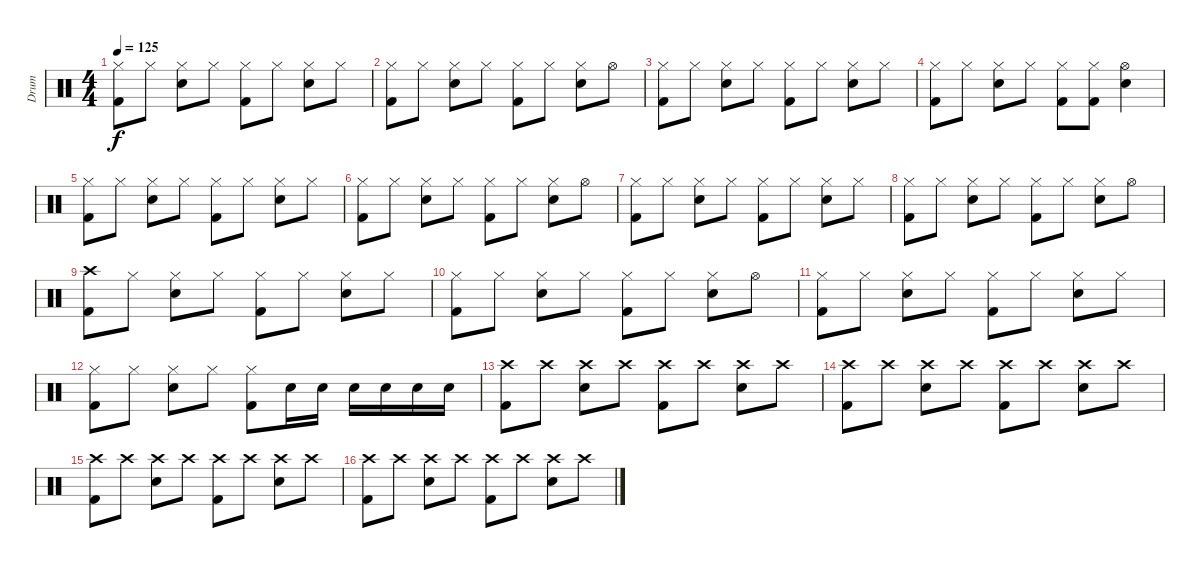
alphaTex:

\track ("Drum" "Drum") {instrument percussion}
\staff {score}
\articulation defaults
\ts (4 4)
\tempo 125
\clef neutral
\ks c
("Kick (hit) 2" "Hi-Hat (closed)").8{dy f} "Hi-Hat (closed)".8 ("Electric Snare (hit)" "Hi-Hat (closed)").8 "Hi-Hat (closed)".8 ("Kick (hit) 2" "Hi-Hat (closed)").8 "Hi-Hat (closed)".8 ("Electric Snare (hit)" "Hi-Hat (closed)").8 "Hi-Hat (closed)".8 |
("Kick (hit) 2" "Hi-Hat (closed)").8 "Hi-Hat (closed)".8 ("Electric Snare (hit)" "Hi-Hat (closed)").8 "Hi-Hat (closed)".8 ("Kick (hit) 2" "Hi-Hat (closed)").8 "Hi-Hat (closed)".8 ("Electric Snare (hit)" "Hi-Hat (closed)").8 "Hi-Hat (open)".8 |
("Kick (hit) 2" "Hi-Hat (closed)").8 "Hi-Hat (closed)".8 ("Electric Snare (hit)" "Hi-Hat (closed)").8 "Hi-Hat (closed)".8 ("Kick (hit) 2" "Hi-Hat (closed)").8 "Hi-Hat (closed)".8 ("Electric Snare (hit)" "Hi-Hat (closed)").8 "Hi-Hat (closed)".8 |
("Kick (hit) 2" "Hi-Hat (closed)").8 "Hi-Hat (closed)".8 ("Electric Snare (hit)" "Hi-Hat (closed)").8 "Hi-Hat (closed)".8 ("Kick (hit) 2" "Hi-Hat (closed)").8 ("Kick (hit) 2" "Hi-Hat (closed)").8 ("Electric Snare (hit)" "Hi-Hat (open)").4 |
("Kick (hit) 2" "Hi-Hat (closed)").8 "Hi-Hat (closed)".8 ("Electric Snare (hit)" "Hi-Hat (closed)").8 "Hi-Hat (closed)".8 ("Kick (hit) 2" "Hi-Hat (closed)").8 "Hi-Hat (closed)".8 ("Electric Snare (hit)" "Hi-Hat (closed)").8 "Hi-Hat (closed)".8 |
("Kick (hit) 2" "Hi-Hat (closed)").8 "Hi-Hat (closed)".8 ("Electric Snare (hit)" "Hi-Hat (closed)").8 "Hi-Hat (closed)".8 ("Kick (hit) 2" "Hi-Hat (closed)").8 "Hi-Hat (closed)".8 ("Electric Snare (hit)" "Hi-Hat (closed)").8 "Hi-Hat (open)".8 |
("Kick (hit) 2" "Hi-Hat (closed)").8 "Hi-Hat (closed)".8 ("Electric Snare (hit)" "Hi-Hat (closed)").8 "Hi-Hat (closed)".8 ("Kick (hit) 2" "Hi-Hat (closed)").8 "Hi-Hat (closed)".8 ("Electric Snare (hit)" "Hi-Hat (closed)").8 "Hi-Hat (closed)".8 |
("Kick (hit) 2" "Hi-Hat (closed)").8 "Hi-Hat (closed)".8 ("Electric Snare (hit)" "Hi-Hat (closed)").8 "Hi-Hat (closed)".8 ("Kick (hit) 2" "Hi-Hat (closed)").8 "Hi-Hat (closed)".8 ("Electric Snare (hit)" "Hi-Hat (closed)").8 "Hi-Hat (open)".8 |
("Kick (hit) 2" "Crash high (hit)").8 "Hi-Hat (closed)".8 ("Electric Snare (hit)" "Hi-Hat (closed)").8 "Hi-Hat (closed)".8 ("Kick (hit) 2" "Hi-Hat (closed)").8 "Hi-Hat (closed)".8 ("Electric Snare (hit)" "Hi-Hat (closed)").8 "Hi-Hat (closed)".8 |
("Kick (hit) 2" "Hi-Hat (closed)").8 "Hi-Hat (closed)".8 ("Electric Snare (hit)" "Hi-Hat (closed)").8 "Hi-Hat (closed)".8 ("Kick (hit) 2" "Hi-Hat (closed)").8 "Hi-Hat (closed)".8 ("Electric Snare (hit)" "Hi-Hat (closed)").8 "Hi-Hat (open)".8 |
("Kick (hit) 2" "Hi-Hat (closed)").8 "Hi-Hat (closed)".8 ("Electric Snare (hit)" "Hi-Hat (closed)").8 "Hi-Hat (closed)".8 ("Kick (hit) 2" "Hi-Hat (closed)").8 "Hi-Hat (closed)".8 ("Electric Snare (hit)" "Hi-Hat (closed)").8 "Hi-Hat (closed)".8 |
("Kick (hit) 2" "Hi-Hat (closed)").8 "Hi-Hat (closed)".8 ("Electric Snare (hit)" "Hi-Hat (closed)").8 "Hi-Hat (closed)".8 ("Kick (hit) 2" "Hi-Hat (closed)").8 "Electric Snare (hit)".16 "Electric Snare (hit)".16 "Electric Snare (hit)".16 "Electric Snare (hit)".16 "Electric Snare (hit)".16 "Electric Snare (hit)".16 |
("Kick (hit) 2" "Crash high (hit)").8 "Crash high (hit)".8 ("Electric Snare (hit)" "Crash high (hit)").8 "Crash high (hit)".8 ("Kick (hit) 2" "Crash high (hit)").8 "Crash high (hit)".8 ("Electric Snare (hit)" "Crash high (hit)").8 "Crash high (hit)".8 |
("Kick (hit) 2" "Crash high (hit)").8 "Crash high (hit)".8 ("Electric Snare (hit)" "Crash high (hit)").8 "Crash high (hit)".8 ("Kick (hit) 2" "Crash high (hit)").8 "Crash high (hit)".8 ("Electric Snare (hit)" "Crash high (hit)").8 "Crash high (hit)".8 |
("Kick (hit) 2" "Crash high (hit)").8 "Crash high (hit)".8 ("Electric Snare (hit)" "Crash high (hit)").8 "Crash high (hit)".8 ("Kick (hit) 2" "Crash high (hit)").8 "Crash high (hit)".8 ("Electric Snare (hit)" "Crash high (hit)").8 "Crash high (hit)".8 |
("Kick (hit) 2" "Crash high (hit)").8 "Crash high (hit)".8 ("Electric Snare (hit)" "Crash high (hit)").8 "Crash high (hit)".8 ("Kick (hit) 2" "Crash high (hit)").8 "Crash high (hit)".8 ("Electric Snare (hit)" "Crash high (hit)").8 "Crash high (hit)".8
